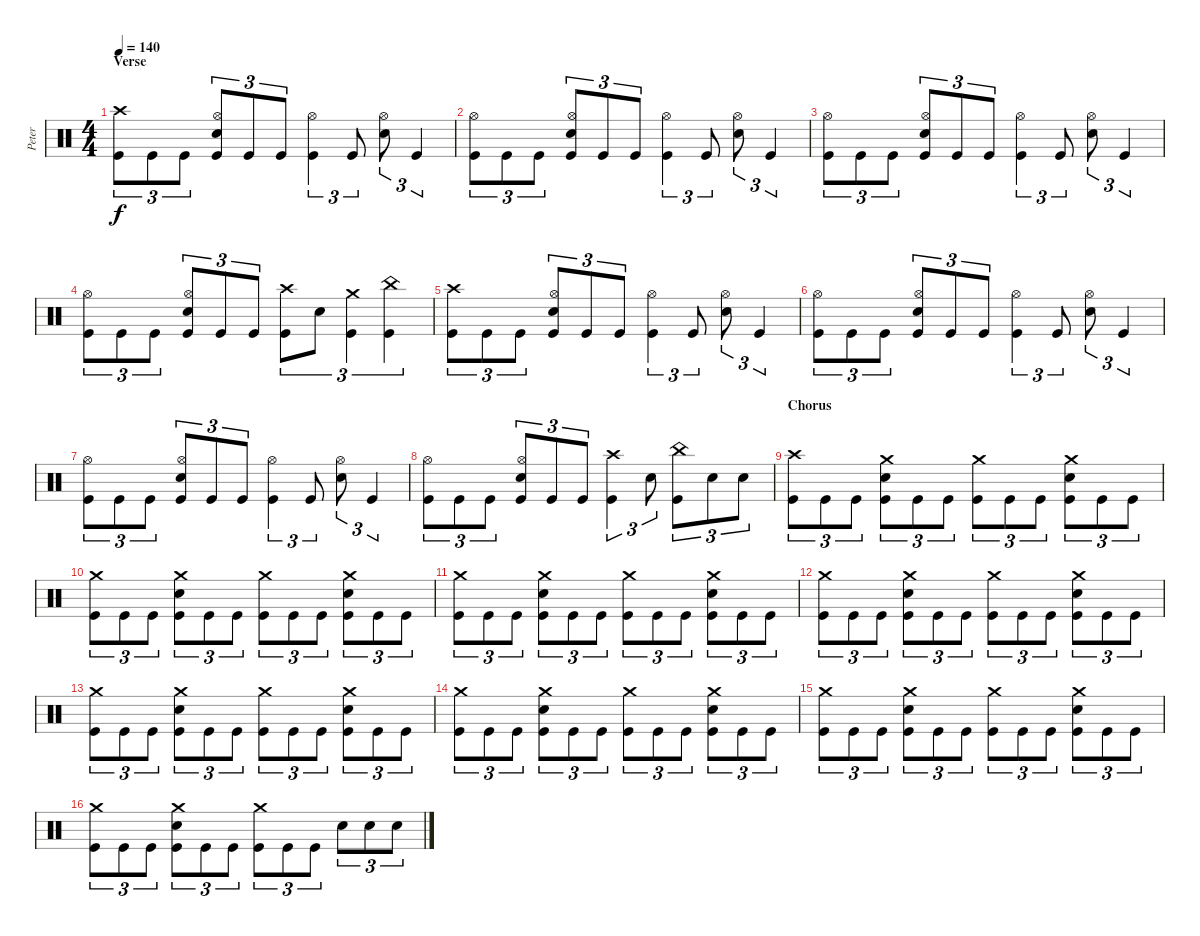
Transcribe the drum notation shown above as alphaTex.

\track ("Peter" "Peter") {instrument percussion}
\staff {score}
\articulation defaults
\ts (4 4)
\section ("" "Verse")
\tempo 140
\clef neutral
\ks c
("Crash high (hit)" "Kick (hit)").8{tu (3 2) dy f} "Kick (hit)".8{tu (3 2)} "Kick (hit)".8{tu (3 2)} ("Hi-Hat (open)" "Electric Snare (hit)" "Kick (hit)").8{tu (3 2)} "Kick (hit)".8{tu (3 2)} "Kick (hit)".8{tu (3 2)} ("Hi-Hat (open)" "Kick (hit)").4{tu (3 2)} "Kick (hit)".8{tu (3 2)} ("Hi-Hat (open)" "Electric Snare (hit)").8{tu (3 2)} "Kick (hit)".4{tu (3 2)} |
("Hi-Hat (open)" "Kick (hit)").8{tu (3 2)} "Kick (hit)".8{tu (3 2)} "Kick (hit)".8{tu (3 2)} ("Hi-Hat (open)" "Electric Snare (hit)" "Kick (hit)").8{tu (3 2)} "Kick (hit)".8{tu (3 2)} "Kick (hit)".8{tu (3 2)} ("Hi-Hat (open)" "Kick (hit)").4{tu (3 2)} "Kick (hit)".8{tu (3 2)} ("Hi-Hat (open)" "Electric Snare (hit)").8{tu (3 2)} "Kick (hit)".4{tu (3 2)} |
("Hi-Hat (open)" "Kick (hit)").8{tu (3 2)} "Kick (hit)".8{tu (3 2)} "Kick (hit)".8{tu (3 2)} ("Hi-Hat (open)" "Electric Snare (hit)" "Kick (hit)").8{tu (3 2)} "Kick (hit)".8{tu (3 2)} "Kick (hit)".8{tu (3 2)} ("Hi-Hat (open)" "Kick (hit)").4{tu (3 2)} "Kick (hit)".8{tu (3 2)} ("Hi-Hat (open)" "Electric Snare (hit)").8{tu (3 2)} "Kick (hit)".4{tu (3 2)} |
("Hi-Hat (open)" "Kick (hit)").8{tu (3 2)} "Kick (hit)".8{tu (3 2)} "Kick (hit)".8{tu (3 2)} ("Hi-Hat (open)" "Electric Snare (hit)" "Kick (hit)").8{tu (3 2)} "Kick (hit)".8{tu (3 2)} "Kick (hit)".8{tu (3 2)} ("Crash high (hit)" "Kick (hit)").8{tu (3 2)} "Electric Snare (hit)".8{tu (3 2)} ("Crash medium (hit)" "Kick (hit)").4{tu (3 2)} ("China (hit)" "Kick (hit)").4{tu (3 2)} |
("Crash high (hit)" "Kick (hit)").8{tu (3 2)} "Kick (hit)".8{tu (3 2)} "Kick (hit)".8{tu (3 2)} ("Hi-Hat (open)" "Electric Snare (hit)" "Kick (hit)").8{tu (3 2)} "Kick (hit)".8{tu (3 2)} "Kick (hit)".8{tu (3 2)} ("Hi-Hat (open)" "Kick (hit)").4{tu (3 2)} "Kick (hit)".8{tu (3 2)} ("Hi-Hat (open)" "Electric Snare (hit)").8{tu (3 2)} "Kick (hit)".4{tu (3 2)} |
("Hi-Hat (open)" "Kick (hit)").8{tu (3 2)} "Kick (hit)".8{tu (3 2)} "Kick (hit)".8{tu (3 2)} ("Hi-Hat (open)" "Electric Snare (hit)" "Kick (hit)").8{tu (3 2)} "Kick (hit)".8{tu (3 2)} "Kick (hit)".8{tu (3 2)} ("Hi-Hat (open)" "Kick (hit)").4{tu (3 2)} "Kick (hit)".8{tu (3 2)} ("Hi-Hat (open)" "Electric Snare (hit)").8{tu (3 2)} "Kick (hit)".4{tu (3 2)} |
("Hi-Hat (open)" "Kick (hit)").8{tu (3 2)} "Kick (hit)".8{tu (3 2)} "Kick (hit)".8{tu (3 2)} ("Hi-Hat (open)" "Electric Snare (hit)" "Kick (hit)").8{tu (3 2)} "Kick (hit)".8{tu (3 2)} "Kick (hit)".8{tu (3 2)} ("Hi-Hat (open)" "Kick (hit)").4{tu (3 2)} "Kick (hit)".8{tu (3 2)} ("Hi-Hat (open)" "Electric Snare (hit)").8{tu (3 2)} "Kick (hit)".4{tu (3 2)} |
("Hi-Hat (open)" "Kick (hit)").8{tu (3 2)} "Kick (hit)".8{tu (3 2)} "Kick (hit)".8{tu (3 2)} ("Hi-Hat (open)" "Electric Snare (hit)" "Kick (hit)").8{tu (3 2)} "Kick (hit)".8{tu (3 2)} "Kick (hit)".8{tu (3 2)} ("Crash high (hit)" "Kick (hit)").4{tu (3 2)} "Electric Snare (hit)".8{tu (3 2)} ("China (hit)" "Kick (hit)").8{tu (3 2)} "Electric Snare (hit)".8{tu (3 2)} "Electric Snare (hit)".8{tu (3 2)} |
\section ("" "Chorus")
("Crash high (hit)" "Kick (hit)").8{tu (3 2)} "Kick (hit)".8{tu (3 2)} "Kick (hit)".8{tu (3 2)} ("Crash medium (hit)" "Electric Snare (hit)" "Kick (hit)").8{tu (3 2)} "Kick (hit)".8{tu (3 2)} "Kick (hit)".8{tu (3 2)} ("Crash medium (hit)" "Kick (hit)").8{tu (3 2)} "Kick (hit)".8{tu (3 2)} "Kick (hit)".8{tu (3 2)} ("Crash medium (hit)" "Electric Snare (hit)" "Kick (hit)").8{tu (3 2)} "Kick (hit)".8{tu (3 2)} "Kick (hit)".8{tu (3 2)} |
("Crash medium (hit)" "Kick (hit)").8{tu (3 2)} "Kick (hit)".8{tu (3 2)} "Kick (hit)".8{tu (3 2)} ("Crash medium (hit)" "Electric Snare (hit)" "Kick (hit)").8{tu (3 2)} "Kick (hit)".8{tu (3 2)} "Kick (hit)".8{tu (3 2)} ("Crash medium (hit)" "Kick (hit)").8{tu (3 2)} "Kick (hit)".8{tu (3 2)} "Kick (hit)".8{tu (3 2)} ("Crash medium (hit)" "Electric Snare (hit)" "Kick (hit)").8{tu (3 2)} "Kick (hit)".8{tu (3 2)} "Kick (hit)".8{tu (3 2)} |
("Crash medium (hit)" "Kick (hit)").8{tu (3 2)} "Kick (hit)".8{tu (3 2)} "Kick (hit)".8{tu (3 2)} ("Crash medium (hit)" "Electric Snare (hit)" "Kick (hit)").8{tu (3 2)} "Kick (hit)".8{tu (3 2)} "Kick (hit)".8{tu (3 2)} ("Crash medium (hit)" "Kick (hit)").8{tu (3 2)} "Kick (hit)".8{tu (3 2)} "Kick (hit)".8{tu (3 2)} ("Crash medium (hit)" "Electric Snare (hit)" "Kick (hit)").8{tu (3 2)} "Kick (hit)".8{tu (3 2)} "Kick (hit)".8{tu (3 2)} |
("Crash medium (hit)" "Kick (hit)").8{tu (3 2)} "Kick (hit)".8{tu (3 2)} "Kick (hit)".8{tu (3 2)} ("Crash medium (hit)" "Electric Snare (hit)" "Kick (hit)").8{tu (3 2)} "Kick (hit)".8{tu (3 2)} "Kick (hit)".8{tu (3 2)} ("Crash medium (hit)" "Kick (hit)").8{tu (3 2)} "Kick (hit)".8{tu (3 2)} "Kick (hit)".8{tu (3 2)} ("Crash medium (hit)" "Electric Snare (hit)" "Kick (hit)").8{tu (3 2)} "Kick (hit)".8{tu (3 2)} "Kick (hit)".8{tu (3 2)} |
("Crash medium (hit)" "Kick (hit)").8{tu (3 2)} "Kick (hit)".8{tu (3 2)} "Kick (hit)".8{tu (3 2)} ("Crash medium (hit)" "Electric Snare (hit)" "Kick (hit)").8{tu (3 2)} "Kick (hit)".8{tu (3 2)} "Kick (hit)".8{tu (3 2)} ("Crash medium (hit)" "Kick (hit)").8{tu (3 2)} "Kick (hit)".8{tu (3 2)} "Kick (hit)".8{tu (3 2)} ("Crash medium (hit)" "Electric Snare (hit)" "Kick (hit)").8{tu (3 2)} "Kick (hit)".8{tu (3 2)} "Kick (hit)".8{tu (3 2)} |
("Crash medium (hit)" "Kick (hit)").8{tu (3 2)} "Kick (hit)".8{tu (3 2)} "Kick (hit)".8{tu (3 2)} ("Crash medium (hit)" "Electric Snare (hit)" "Kick (hit)").8{tu (3 2)} "Kick (hit)".8{tu (3 2)} "Kick (hit)".8{tu (3 2)} ("Crash medium (hit)" "Kick (hit)").8{tu (3 2)} "Kick (hit)".8{tu (3 2)} "Kick (hit)".8{tu (3 2)} ("Crash medium (hit)" "Electric Snare (hit)" "Kick (hit)").8{tu (3 2)} "Kick (hit)".8{tu (3 2)} "Kick (hit)".8{tu (3 2)} |
("Crash medium (hit)" "Kick (hit)").8{tu (3 2)} "Kick (hit)".8{tu (3 2)} "Kick (hit)".8{tu (3 2)} ("Crash medium (hit)" "Electric Snare (hit)" "Kick (hit)").8{tu (3 2)} "Kick (hit)".8{tu (3 2)} "Kick (hit)".8{tu (3 2)} ("Crash medium (hit)" "Kick (hit)").8{tu (3 2)} "Kick (hit)".8{tu (3 2)} "Kick (hit)".8{tu (3 2)} ("Crash medium (hit)" "Electric Snare (hit)" "Kick (hit)").8{tu (3 2)} "Kick (hit)".8{tu (3 2)} "Kick (hit)".8{tu (3 2)} |
("Crash medium (hit)" "Kick (hit)").8{tu (3 2)} "Kick (hit)".8{tu (3 2)} "Kick (hit)".8{tu (3 2)} ("Crash medium (hit)" "Electric Snare (hit)" "Kick (hit)").8{tu (3 2)} "Kick (hit)".8{tu (3 2)} "Kick (hit)".8{tu (3 2)} ("Crash medium (hit)" "Kick (hit)").8{tu (3 2)} "Kick (hit)".8{tu (3 2)} "Kick (hit)".8{tu (3 2)} "Electric Snare (hit)".8{tu (3 2)} "Electric Snare (hit)".8{tu (3 2)} "Electric Snare (hit)".8{tu (3 2)}
